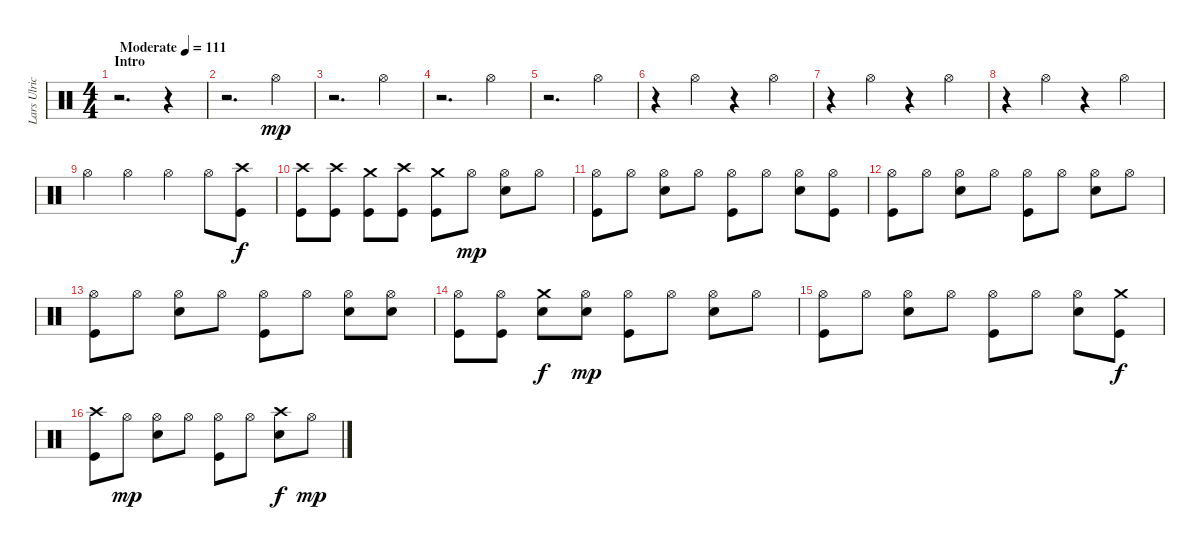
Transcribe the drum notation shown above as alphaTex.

\track ("Lars Ulrich (Drums)" "Lars Ulric") {instrument percussion}
\staff {score}
\articulation defaults
\ts (4 4)
\section ("" "Intro")
\tempo (111 "Moderate")
\clef neutral
\ks c
r.2{d dy mp} r.4 |
r.2{d} "Hi-Hat (open)".4 |
r.2{d} "Hi-Hat (open)".4 |
r.2{d} "Hi-Hat (open)".4 |
r.2{d} "Hi-Hat (open)".4 |
r.4 "Hi-Hat (open)".4 r.4 "Hi-Hat (open)".4 |
r.4 "Hi-Hat (open)".4 r.4 "Hi-Hat (open)".4 |
r.4 "Hi-Hat (open)".4 r.4 "Hi-Hat (open)".4 |
"Hi-Hat (open)".4 "Hi-Hat (open)".4 "Hi-Hat (open)".4 "Hi-Hat (open)".8 ("Crash high (hit)" "Kick (hit)").8{dy f} |
("Crash high (hit)" "Kick (hit)").8 ("Crash high (hit)" "Kick (hit)").8 ("Crash medium (hit)" "Kick (hit)").8 ("Crash high (hit)" "Kick (hit)").8 ("Crash medium (hit)" "Kick (hit)").8 "Hi-Hat (open)".8{dy mp} ("Hi-Hat (open)" "Snare (hit) 2").8 "Hi-Hat (open)".8 |
("Hi-Hat (open)" "Kick (hit)").8 "Hi-Hat (open)".8 ("Hi-Hat (open)" "Snare (hit) 2").8 "Hi-Hat (open)".8 ("Hi-Hat (open)" "Kick (hit)").8 "Hi-Hat (open)".8 ("Hi-Hat (open)" "Snare (hit) 2").8 ("Hi-Hat (open)" "Kick (hit)").8 |
("Hi-Hat (open)" "Kick (hit)").8 "Hi-Hat (open)".8 ("Hi-Hat (open)" "Snare (hit) 2").8 "Hi-Hat (open)".8 ("Hi-Hat (open)" "Kick (hit)").8 "Hi-Hat (open)".8 ("Hi-Hat (open)" "Snare (hit) 2").8 "Hi-Hat (open)".8 |
("Hi-Hat (open)" "Kick (hit)").8 "Hi-Hat (open)".8 ("Hi-Hat (open)" "Snare (hit) 2").8 "Hi-Hat (open)".8 ("Hi-Hat (open)" "Kick (hit)").8 "Hi-Hat (open)".8 ("Hi-Hat (open)" "Snare (hit) 2").8 ("Hi-Hat (open)" "Snare (hit) 2").8 |
("Hi-Hat (open)" "Kick (hit)").8 ("Hi-Hat (open)" "Kick (hit)").8 ("Crash medium (hit)" "Snare (hit) 2").8{dy f} ("Hi-Hat (open)" "Snare (hit) 2").8{dy mp} ("Hi-Hat (open)" "Kick (hit)").8 "Hi-Hat (open)".8 ("Hi-Hat (open)" "Snare (hit) 2").8 "Hi-Hat (open)".8 |
("Hi-Hat (open)" "Kick (hit)").8 "Hi-Hat (open)".8 ("Hi-Hat (open)" "Snare (hit) 2").8 "Hi-Hat (open)".8 ("Hi-Hat (open)" "Kick (hit)").8 "Hi-Hat (open)".8 ("Hi-Hat (open)" "Snare (hit) 2").8 ("Crash medium (hit)" "Kick (hit)").8{dy f} |
("Crash high (hit)" "Kick (hit)").8 "Hi-Hat (open)".8{dy mp} ("Hi-Hat (open)" "Snare (hit) 2").8 "Hi-Hat (open)".8 ("Hi-Hat (open)" "Kick (hit)").8 "Hi-Hat (open)".8 ("Crash high (hit)" "Snare (hit) 2").8{dy f} "Hi-Hat (open)".8{dy mp}
